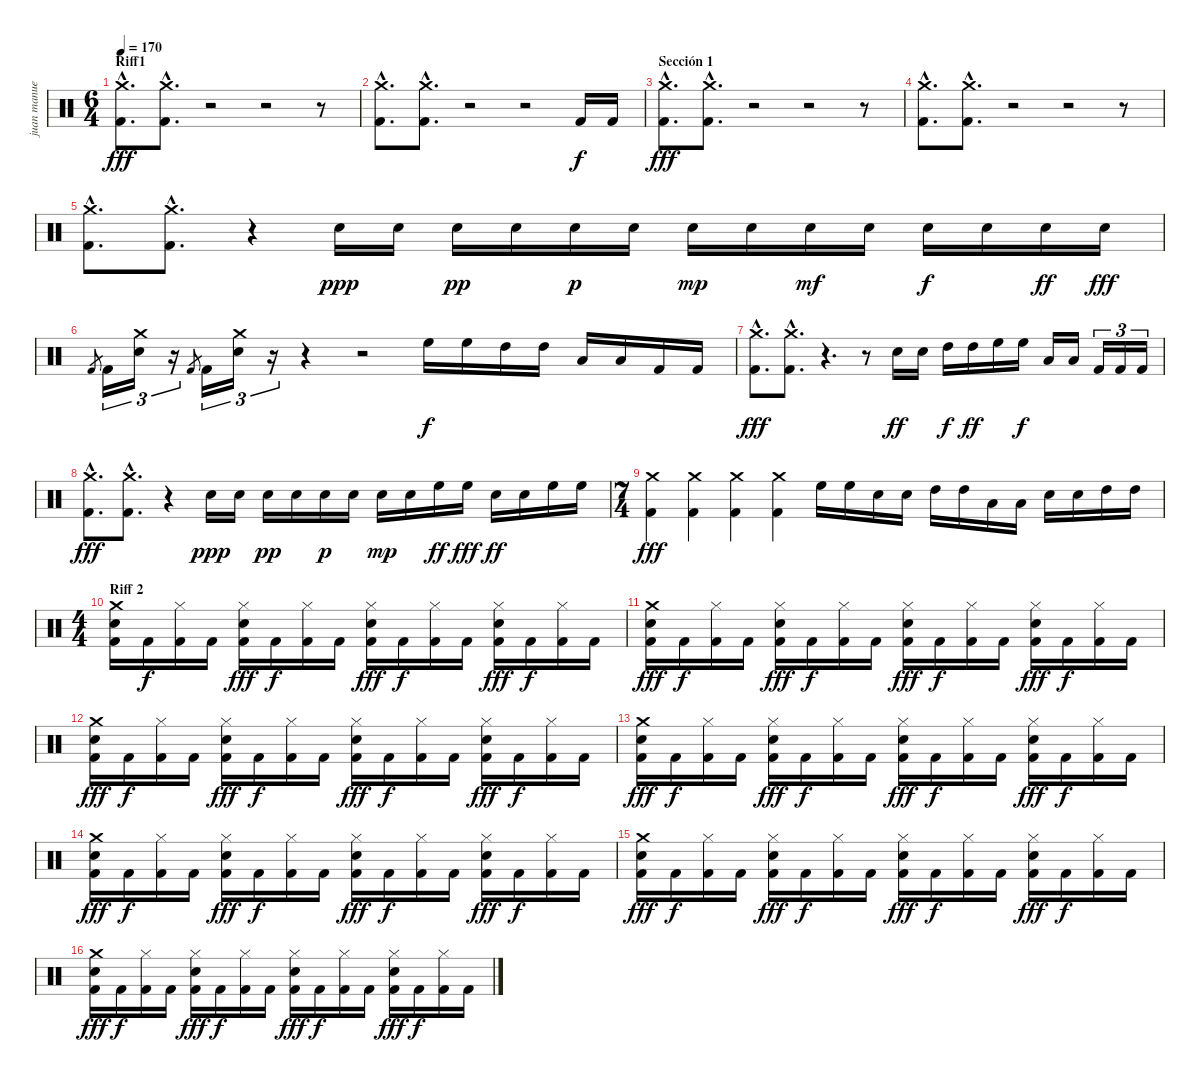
\track ("juan manuel" "juan manue") {instrument percussion}
\staff {score}
\articulation defaults
\ts (6 4)
\section ("" "Riff1")
\tempo 170
\clef neutral
\ks c
("Crash medium (hit)"{hac} "Kick (hit) 2"{hac}).8{d dy fff} ("Crash medium (hit)"{hac} "Kick (hit) 2"{hac}).8{d} r.2 r.2 r.8 |
("Crash medium (hit)"{hac} "Kick (hit) 2"{hac}).8{d} ("Crash medium (hit)"{hac} "Kick (hit) 2"{hac}).8{d} r.2 r.2 "Kick (hit) 2".16{dy f} "Kick (hit) 2".16 |
\section ("" "Sección 1")
("Crash medium (hit)"{hac} "Kick (hit) 2"{hac}).8{d dy fff} ("Crash medium (hit)"{hac} "Kick (hit) 2"{hac}).8{d} r.2 r.2 r.8 |
("Crash medium (hit)"{hac} "Kick (hit) 2"{hac}).8{d} ("Crash medium (hit)"{hac} "Kick (hit) 2"{hac}).8{d} r.2 r.2 r.8 |
("Crash medium (hit)"{hac} "Kick (hit) 2"{hac}).8{d} ("Crash medium (hit)"{hac} "Kick (hit) 2"{hac}).8{d} r.4 "Electric Snare (hit)".16{dy ppp} "Electric Snare (hit)".16 "Electric Snare (hit)".16{dy pp} "Electric Snare (hit)".16 "Electric Snare (hit)".16{dy p} "Electric Snare (hit)".16 "Electric Snare (hit)".16{dy mp} "Electric Snare (hit)".16 "Electric Snare (hit)".16{dy mf} "Electric Snare (hit)".16 "Electric Snare (hit)".16{dy f} "Electric Snare (hit)".16 "Electric Snare (hit)".16{dy ff} "Electric Snare (hit)".16{dy fff} |
"Kick (hit) 2".8{gr} "Kick (hit) 2".16{tu (3 2)} ("Crash medium (hit)" "Electric Snare (hit)").16{tu (3 2)} r.16{tu (3 2)} "Kick (hit) 2".8{gr} "Kick (hit) 2".16{tu (3 2)} ("Crash medium (hit)" "Electric Snare (hit)").16{tu (3 2)} r.16{tu (3 2)} r.4 r.2 "High Floor Tom (hit)".16{dy f} "High Floor Tom (hit)".16 "High Tom (hit)".16 "High Tom (hit)".16 "Low Tom (hit)".16 "Low Tom (hit)".16 "Kick (hit) 2".16 "Kick (hit) 2".16 |
("Crash medium (hit)"{hac} "Kick (hit) 2"{hac}).8{d dy fff} ("Crash medium (hit)"{hac} "Kick (hit) 2"{hac}).8{d} r.4{d} r.8 "Electric Snare (hit)".16{dy ff} "Electric Snare (hit)".16 "High Tom (hit)".16{dy f} "High Tom (hit)".16{dy ff} "High Floor Tom (hit)".16 "High Floor Tom (hit)".16{dy f} "Low Tom (hit)".16 "Low Tom (hit)".16 "Kick (hit) 2".16{tu (3 2)} "Kick (hit) 2".16{tu (3 2)} "Kick (hit) 2".16{tu (3 2)} |
("Crash medium (hit)"{hac} "Kick (hit) 2"{hac}).8{d dy fff} ("Crash medium (hit)"{hac} "Kick (hit) 2"{hac}).8{d} r.4 "Electric Snare (hit)".16{dy ppp} "Electric Snare (hit)".16 "Electric Snare (hit)".16{dy pp} "Electric Snare (hit)".16 "Electric Snare (hit)".16{dy p} "Electric Snare (hit)".16 "Electric Snare (hit)".16{dy mp} "Electric Snare (hit)".16 "High Floor Tom (hit)".16{dy ff} "High Floor Tom (hit)".16{dy fff} "Electric Snare (hit)".16{dy ff} "Electric Snare (hit)".16 "High Floor Tom (hit)".16 "High Floor Tom (hit)".16 |
\ts (7 4)
("Crash medium (hit)" "Kick (hit) 2").4{dy fff} ("Crash medium (hit)" "Kick (hit) 2").4 ("Crash medium (hit)" "Kick (hit) 2").4 ("Crash medium (hit)" "Kick (hit) 2").4 "High Floor Tom (hit)".16 "High Floor Tom (hit)".16 "Electric Snare (hit)".16 "Electric Snare (hit)".16 "High Tom (hit)".16 "High Tom (hit)".16 "Low Tom (hit)".16 "Low Tom (hit)".16 "Electric Snare (hit)".16 "Electric Snare (hit)".16 "High Tom (hit)".16 "High Tom (hit)".16 |
\ts (4 4)
\section ("" "Riff 2")
("Crash medium (hit)" "Electric Snare (hit)" "Kick (hit) 2").16 "Kick (hit) 2".16{dy f} ("Hi-Hat (closed)" "Kick (hit) 2").16 "Kick (hit) 2".16 ("Hi-Hat (closed)" "Electric Snare (hit)" "Kick (hit) 2").16{dy fff} "Kick (hit) 2".16{dy f} ("Hi-Hat (closed)" "Kick (hit) 2").16 "Kick (hit) 2".16 ("Hi-Hat (closed)" "Electric Snare (hit)" "Kick (hit) 2").16{dy fff} "Kick (hit) 2".16{dy f} ("Hi-Hat (closed)" "Kick (hit) 2").16 "Kick (hit) 2".16 ("Hi-Hat (closed)" "Electric Snare (hit)" "Kick (hit) 2").16{dy fff} "Kick (hit) 2".16{dy f} ("Hi-Hat (closed)" "Kick (hit) 2").16 "Kick (hit) 2".16 |
("Crash medium (hit)" "Electric Snare (hit)" "Kick (hit) 2").16{dy fff} "Kick (hit) 2".16{dy f} ("Hi-Hat (closed)" "Kick (hit) 2").16 "Kick (hit) 2".16 ("Hi-Hat (closed)" "Electric Snare (hit)" "Kick (hit) 2").16{dy fff} "Kick (hit) 2".16{dy f} ("Hi-Hat (closed)" "Kick (hit) 2").16 "Kick (hit) 2".16 ("Hi-Hat (closed)" "Electric Snare (hit)" "Kick (hit) 2").16{dy fff} "Kick (hit) 2".16{dy f} ("Hi-Hat (closed)" "Kick (hit) 2").16 "Kick (hit) 2".16 ("Hi-Hat (closed)" "Electric Snare (hit)" "Kick (hit) 2").16{dy fff} "Kick (hit) 2".16{dy f} ("Hi-Hat (closed)" "Kick (hit) 2").16 "Kick (hit) 2".16 |
("Crash medium (hit)" "Electric Snare (hit)" "Kick (hit) 2").16{dy fff} "Kick (hit) 2".16{dy f} ("Hi-Hat (closed)" "Kick (hit) 2").16 "Kick (hit) 2".16 ("Hi-Hat (closed)" "Electric Snare (hit)" "Kick (hit) 2").16{dy fff} "Kick (hit) 2".16{dy f} ("Hi-Hat (closed)" "Kick (hit) 2").16 "Kick (hit) 2".16 ("Hi-Hat (closed)" "Electric Snare (hit)" "Kick (hit) 2").16{dy fff} "Kick (hit) 2".16{dy f} ("Hi-Hat (closed)" "Kick (hit) 2").16 "Kick (hit) 2".16 ("Hi-Hat (closed)" "Electric Snare (hit)" "Kick (hit) 2").16{dy fff} "Kick (hit) 2".16{dy f} ("Hi-Hat (closed)" "Kick (hit) 2").16 "Kick (hit) 2".16 |
("Crash medium (hit)" "Electric Snare (hit)" "Kick (hit) 2").16{dy fff} "Kick (hit) 2".16{dy f} ("Hi-Hat (closed)" "Kick (hit) 2").16 "Kick (hit) 2".16 ("Hi-Hat (closed)" "Electric Snare (hit)" "Kick (hit) 2").16{dy fff} "Kick (hit) 2".16{dy f} ("Hi-Hat (closed)" "Kick (hit) 2").16 "Kick (hit) 2".16 ("Hi-Hat (closed)" "Electric Snare (hit)" "Kick (hit) 2").16{dy fff} "Kick (hit) 2".16{dy f} ("Hi-Hat (closed)" "Kick (hit) 2").16 "Kick (hit) 2".16 ("Hi-Hat (closed)" "Electric Snare (hit)" "Kick (hit) 2").16{dy fff} "Kick (hit) 2".16{dy f} ("Hi-Hat (closed)" "Kick (hit) 2").16 "Kick (hit) 2".16 |
("Crash medium (hit)" "Electric Snare (hit)" "Kick (hit) 2").16{dy fff} "Kick (hit) 2".16{dy f} ("Hi-Hat (closed)" "Kick (hit) 2").16 "Kick (hit) 2".16 ("Hi-Hat (closed)" "Electric Snare (hit)" "Kick (hit) 2").16{dy fff} "Kick (hit) 2".16{dy f} ("Hi-Hat (closed)" "Kick (hit) 2").16 "Kick (hit) 2".16 ("Hi-Hat (closed)" "Electric Snare (hit)" "Kick (hit) 2").16{dy fff} "Kick (hit) 2".16{dy f} ("Hi-Hat (closed)" "Kick (hit) 2").16 "Kick (hit) 2".16 ("Hi-Hat (closed)" "Electric Snare (hit)" "Kick (hit) 2").16{dy fff} "Kick (hit) 2".16{dy f} ("Hi-Hat (closed)" "Kick (hit) 2").16 "Kick (hit) 2".16 |
("Crash medium (hit)" "Electric Snare (hit)" "Kick (hit) 2").16{dy fff} "Kick (hit) 2".16{dy f} ("Hi-Hat (closed)" "Kick (hit) 2").16 "Kick (hit) 2".16 ("Hi-Hat (closed)" "Electric Snare (hit)" "Kick (hit) 2").16{dy fff} "Kick (hit) 2".16{dy f} ("Hi-Hat (closed)" "Kick (hit) 2").16 "Kick (hit) 2".16 ("Hi-Hat (closed)" "Electric Snare (hit)" "Kick (hit) 2").16{dy fff} "Kick (hit) 2".16{dy f} ("Hi-Hat (closed)" "Kick (hit) 2").16 "Kick (hit) 2".16 ("Hi-Hat (closed)" "Electric Snare (hit)" "Kick (hit) 2").16{dy fff} "Kick (hit) 2".16{dy f} ("Hi-Hat (closed)" "Kick (hit) 2").16 "Kick (hit) 2".16 |
("Crash medium (hit)" "Electric Snare (hit)" "Kick (hit) 2").16{dy fff} "Kick (hit) 2".16{dy f} ("Hi-Hat (closed)" "Kick (hit) 2").16 "Kick (hit) 2".16 ("Hi-Hat (closed)" "Electric Snare (hit)" "Kick (hit) 2").16{dy fff} "Kick (hit) 2".16{dy f} ("Hi-Hat (closed)" "Kick (hit) 2").16 "Kick (hit) 2".16 ("Hi-Hat (closed)" "Electric Snare (hit)" "Kick (hit) 2").16{dy fff} "Kick (hit) 2".16{dy f} ("Hi-Hat (closed)" "Kick (hit) 2").16 "Kick (hit) 2".16 ("Hi-Hat (closed)" "Electric Snare (hit)" "Kick (hit) 2").16{dy fff} "Kick (hit) 2".16{dy f} ("Hi-Hat (closed)" "Kick (hit) 2").16 "Kick (hit) 2".16
